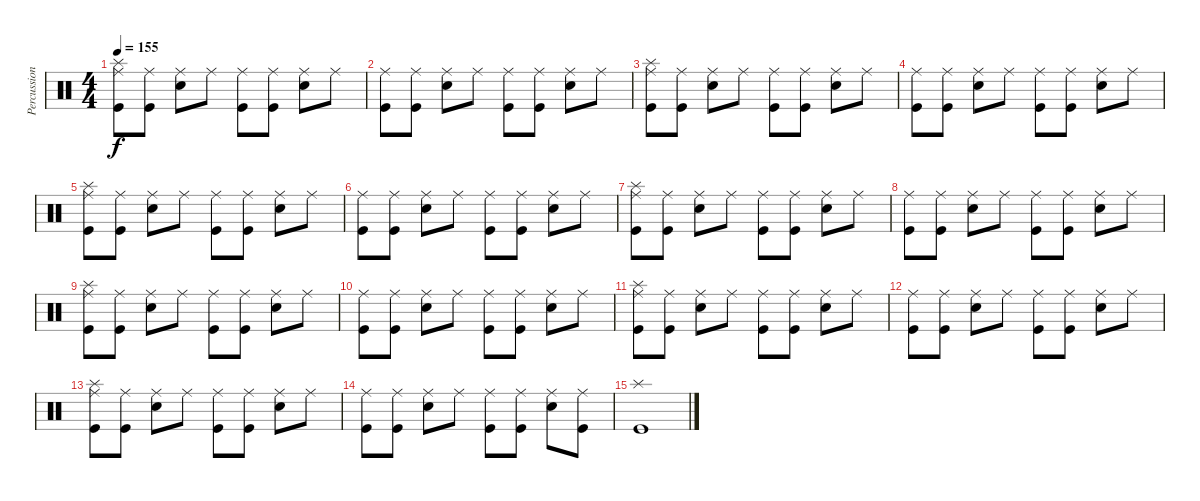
\track ("Percussion" "Percussion") {instrument percussion}
\staff {score}
\articulation defaults
\ts (4 4)
\tempo 155
\clef neutral
\ks c
("Splash (hit)" "Ride (middle)" "Kick (hit)").8{dy f} ("Ride (middle)" "Kick (hit)").8 ("Ride (middle)" "Electric Snare (hit)").8 "Ride (middle)".8 ("Ride (middle)" "Kick (hit)").8 ("Ride (middle)" "Kick (hit)").8 ("Ride (middle)" "Electric Snare (hit)").8 "Ride (middle)".8 |
("Ride (middle)" "Kick (hit)").8 ("Ride (middle)" "Kick (hit)").8 ("Ride (middle)" "Electric Snare (hit)").8 "Ride (middle)".8 ("Ride (middle)" "Kick (hit)").8 ("Ride (middle)" "Kick (hit)").8 ("Ride (middle)" "Electric Snare (hit)").8 "Ride (middle)".8 |
("Splash (hit)" "Ride (middle)" "Kick (hit)").8 ("Ride (middle)" "Kick (hit)").8 ("Ride (middle)" "Electric Snare (hit)").8 "Ride (middle)".8 ("Ride (middle)" "Kick (hit)").8 ("Ride (middle)" "Kick (hit)").8 ("Ride (middle)" "Electric Snare (hit)").8 "Ride (middle)".8 |
("Ride (middle)" "Kick (hit)").8 ("Ride (middle)" "Kick (hit)").8 ("Ride (middle)" "Electric Snare (hit)").8 "Ride (middle)".8 ("Ride (middle)" "Kick (hit)").8 ("Ride (middle)" "Kick (hit)").8 ("Ride (middle)" "Electric Snare (hit)").8 "Ride (middle)".8 |
("Splash (hit)" "Ride (middle)" "Kick (hit)").8 ("Ride (middle)" "Kick (hit)").8 ("Ride (middle)" "Electric Snare (hit)").8 "Ride (middle)".8 ("Ride (middle)" "Kick (hit)").8 ("Ride (middle)" "Kick (hit)").8 ("Ride (middle)" "Electric Snare (hit)").8 "Ride (middle)".8 |
("Ride (middle)" "Kick (hit)").8 ("Ride (middle)" "Kick (hit)").8 ("Ride (middle)" "Electric Snare (hit)").8 "Ride (middle)".8 ("Ride (middle)" "Kick (hit)").8 ("Ride (middle)" "Kick (hit)").8 ("Ride (middle)" "Electric Snare (hit)").8 "Ride (middle)".8 |
("Splash (hit)" "Ride (middle)" "Kick (hit)").8 ("Ride (middle)" "Kick (hit)").8 ("Ride (middle)" "Electric Snare (hit)").8 "Ride (middle)".8 ("Ride (middle)" "Kick (hit)").8 ("Ride (middle)" "Kick (hit)").8 ("Ride (middle)" "Electric Snare (hit)").8 "Ride (middle)".8 |
("Ride (middle)" "Kick (hit)").8 ("Ride (middle)" "Kick (hit)").8 ("Ride (middle)" "Electric Snare (hit)").8 "Ride (middle)".8 ("Ride (middle)" "Kick (hit)").8 ("Ride (middle)" "Kick (hit)").8 ("Ride (middle)" "Electric Snare (hit)").8 "Ride (middle)".8 |
("Splash (hit)" "Ride (middle)" "Kick (hit)").8 ("Ride (middle)" "Kick (hit)").8 ("Ride (middle)" "Electric Snare (hit)").8 "Ride (middle)".8 ("Ride (middle)" "Kick (hit)").8 ("Ride (middle)" "Kick (hit)").8 ("Ride (middle)" "Electric Snare (hit)").8 "Ride (middle)".8 |
("Ride (middle)" "Kick (hit)").8 ("Ride (middle)" "Kick (hit)").8 ("Ride (middle)" "Electric Snare (hit)").8 "Ride (middle)".8 ("Ride (middle)" "Kick (hit)").8 ("Ride (middle)" "Kick (hit)").8 ("Ride (middle)" "Electric Snare (hit)").8 "Ride (middle)".8 |
("Splash (hit)" "Ride (middle)" "Kick (hit)").8 ("Ride (middle)" "Kick (hit)").8 ("Ride (middle)" "Electric Snare (hit)").8 "Ride (middle)".8 ("Ride (middle)" "Kick (hit)").8 ("Ride (middle)" "Kick (hit)").8 ("Ride (middle)" "Electric Snare (hit)").8 "Ride (middle)".8 |
("Ride (middle)" "Kick (hit)").8 ("Ride (middle)" "Kick (hit)").8 ("Ride (middle)" "Electric Snare (hit)").8 "Ride (middle)".8 ("Ride (middle)" "Kick (hit)").8 ("Ride (middle)" "Kick (hit)").8 ("Ride (middle)" "Electric Snare (hit)").8 "Ride (middle)".8 |
("Splash (hit)" "Ride (middle)" "Kick (hit)").8 ("Ride (middle)" "Kick (hit)").8 ("Ride (middle)" "Electric Snare (hit)").8 "Ride (middle)".8 ("Ride (middle)" "Kick (hit)").8 ("Ride (middle)" "Kick (hit)").8 ("Ride (middle)" "Electric Snare (hit)").8 "Ride (middle)".8 |
("Ride (middle)" "Kick (hit)").8 ("Ride (middle)" "Kick (hit)").8 ("Ride (middle)" "Electric Snare (hit)").8 "Ride (middle)".8 ("Ride (middle)" "Kick (hit)").8 ("Ride (middle)" "Kick (hit)").8 ("Ride (middle)" "Electric Snare (hit)").8 ("Ride (middle)" "Kick (hit)").8 |
("Splash (hit)" "Kick (hit)").1
